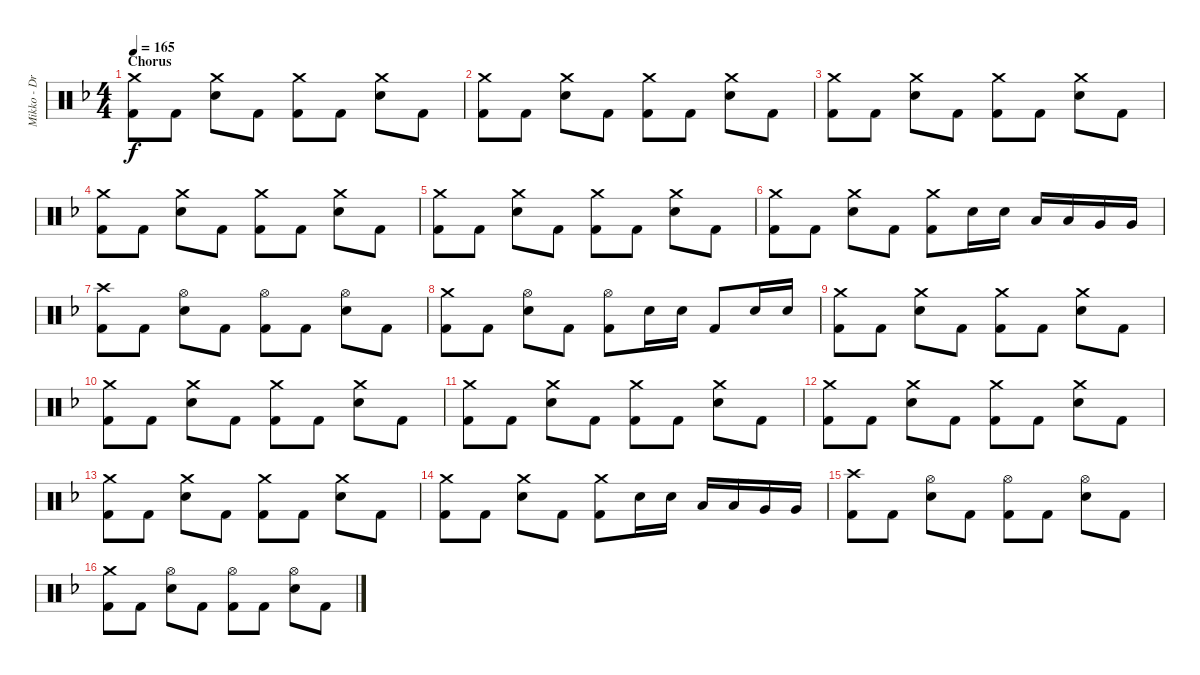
\track ("Mikko - Drums" "Mikko - Dr") {instrument percussion}
\staff {score}
\articulation defaults
\ts (4 4)
\section ("" "Chorus")
\tempo 165
\clef neutral
\ks dminor
("Crash medium (hit)" "Kick (hit) 2").8{dy f} "Kick (hit) 2".8 ("Crash medium (hit)" "Snare (hit) 2").8 "Kick (hit) 2".8 ("Crash medium (hit)" "Kick (hit) 2").8 "Kick (hit) 2".8 ("Crash medium (hit)" "Snare (hit) 2").8 "Kick (hit) 2".8 |
("Crash medium (hit)" "Kick (hit) 2").8 "Kick (hit) 2".8 ("Crash medium (hit)" "Snare (hit) 2").8 "Kick (hit) 2".8 ("Crash medium (hit)" "Kick (hit) 2").8 "Kick (hit) 2".8 ("Crash medium (hit)" "Snare (hit) 2").8 "Kick (hit) 2".8 |
("Crash medium (hit)" "Kick (hit) 2").8 "Kick (hit) 2".8 ("Crash medium (hit)" "Snare (hit) 2").8 "Kick (hit) 2".8 ("Crash medium (hit)" "Kick (hit) 2").8 "Kick (hit) 2".8 ("Crash medium (hit)" "Snare (hit) 2").8 "Kick (hit) 2".8 |
("Crash medium (hit)" "Kick (hit) 2").8 "Kick (hit) 2".8 ("Crash medium (hit)" "Snare (hit) 2").8 "Kick (hit) 2".8 ("Crash medium (hit)" "Kick (hit) 2").8 "Kick (hit) 2".8 ("Crash medium (hit)" "Snare (hit) 2").8 "Kick (hit) 2".8 |
("Crash medium (hit)" "Kick (hit) 2").8 "Kick (hit) 2".8 ("Crash medium (hit)" "Snare (hit) 2").8 "Kick (hit) 2".8 ("Crash medium (hit)" "Kick (hit) 2").8 "Kick (hit) 2".8 ("Crash medium (hit)" "Snare (hit) 2").8 "Kick (hit) 2".8 |
("Crash medium (hit)" "Kick (hit) 2").8 "Kick (hit) 2".8 ("Crash medium (hit)" "Snare (hit) 2").8 "Kick (hit) 2".8 ("Crash medium (hit)" "Kick (hit) 2").8 "Snare (hit) 2".16 "Snare (hit) 2".16 "Low Tom (hit)".16 "Low Tom (hit)".16 "Very Low Tom (hit)".16 "Very Low Tom (hit)".16 |
("Crash high (hit)" "Kick (hit) 2").8 "Kick (hit) 2".8 ("Hi-Hat (open)" "Snare (hit) 2").8 "Kick (hit) 2".8 ("Hi-Hat (open)" "Kick (hit) 2").8 "Kick (hit) 2".8 ("Hi-Hat (open)" "Snare (hit) 2").8 "Kick (hit) 2".8 |
("Crash medium (hit)" "Kick (hit) 2").8 "Kick (hit) 2".8 ("Hi-Hat (open)" "Snare (hit) 2").8 "Kick (hit) 2".8 ("Hi-Hat (open)" "Kick (hit) 2").8 "Snare (hit) 2".16 "Snare (hit) 2".16 "Kick (hit) 2".8 "Snare (hit) 2".16 "Snare (hit) 2".16 |
("Crash medium (hit)" "Kick (hit) 2").8 "Kick (hit) 2".8 ("Crash medium (hit)" "Snare (hit) 2").8 "Kick (hit) 2".8 ("Crash medium (hit)" "Kick (hit) 2").8 "Kick (hit) 2".8 ("Crash medium (hit)" "Snare (hit) 2").8 "Kick (hit) 2".8 |
("Crash medium (hit)" "Kick (hit) 2").8 "Kick (hit) 2".8 ("Crash medium (hit)" "Snare (hit) 2").8 "Kick (hit) 2".8 ("Crash medium (hit)" "Kick (hit) 2").8 "Kick (hit) 2".8 ("Crash medium (hit)" "Snare (hit) 2").8 "Kick (hit) 2".8 |
("Crash medium (hit)" "Kick (hit) 2").8 "Kick (hit) 2".8 ("Crash medium (hit)" "Snare (hit) 2").8 "Kick (hit) 2".8 ("Crash medium (hit)" "Kick (hit) 2").8 "Kick (hit) 2".8 ("Crash medium (hit)" "Snare (hit) 2").8 "Kick (hit) 2".8 |
("Crash medium (hit)" "Kick (hit) 2").8 "Kick (hit) 2".8 ("Crash medium (hit)" "Snare (hit) 2").8 "Kick (hit) 2".8 ("Crash medium (hit)" "Kick (hit) 2").8 "Kick (hit) 2".8 ("Crash medium (hit)" "Snare (hit) 2").8 "Kick (hit) 2".8 |
("Crash medium (hit)" "Kick (hit) 2").8 "Kick (hit) 2".8 ("Crash medium (hit)" "Snare (hit) 2").8 "Kick (hit) 2".8 ("Crash medium (hit)" "Kick (hit) 2").8 "Kick (hit) 2".8 ("Crash medium (hit)" "Snare (hit) 2").8 "Kick (hit) 2".8 |
("Crash medium (hit)" "Kick (hit) 2").8 "Kick (hit) 2".8 ("Crash medium (hit)" "Snare (hit) 2").8 "Kick (hit) 2".8 ("Crash medium (hit)" "Kick (hit) 2").8 "Snare (hit) 2".16 "Snare (hit) 2".16 "Low Tom (hit)".16 "Low Tom (hit)".16 "Very Low Tom (hit)".16 "Very Low Tom (hit)".16 |
("Crash high (hit)" "Kick (hit) 2").8 "Kick (hit) 2".8 ("Hi-Hat (open)" "Snare (hit) 2").8 "Kick (hit) 2".8 ("Hi-Hat (open)" "Kick (hit) 2").8 "Kick (hit) 2".8 ("Hi-Hat (open)" "Snare (hit) 2").8 "Kick (hit) 2".8 |
("Crash medium (hit)" "Kick (hit) 2").8 "Kick (hit) 2".8 ("Hi-Hat (open)" "Snare (hit) 2").8 "Kick (hit) 2".8 ("Hi-Hat (open)" "Kick (hit) 2").8 "Kick (hit) 2".8 ("Hi-Hat (open)" "Snare (hit) 2").8 "Kick (hit) 2".8
